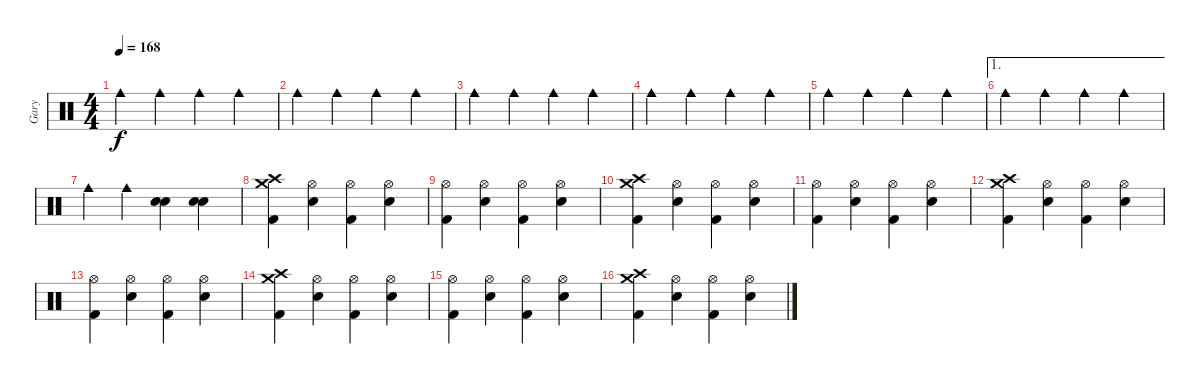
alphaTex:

\track ("Gary" "Gary") {instrument percussion}
\staff {score}
\articulation defaults
\ts (4 4)
\tempo 168
\clef neutral
\ks c "Cowbell medium (hit)".4{dy f} "Cowbell medium (hit)".4 "Cowbell medium (hit)".4 "Cowbell medium (hit)".4
|
"Cowbell medium (hit)".4 "Cowbell medium (hit)".4 "Cowbell medium (hit)".4 "Cowbell medium (hit)".4 |
"Cowbell medium (hit)".4 "Cowbell medium (hit)".4 "Cowbell medium (hit)".4 "Cowbell medium (hit)".4 |
"Cowbell medium (hit)".4 "Cowbell medium (hit)".4 "Cowbell medium (hit)".4 "Cowbell medium (hit)".4 |
"Cowbell medium (hit)".4 "Cowbell medium (hit)".4 "Cowbell medium (hit)".4 "Cowbell medium (hit)".4 |
\ae 1 "Cowbell medium (hit)".4 "Cowbell medium (hit)".4 "Cowbell medium (hit)".4 "Cowbell medium (hit)".4
|
"Cowbell medium (hit)".4 "Cowbell medium (hit)".4 ("Electric Snare (hit)" "Electric Snare (hit)").4 ("Electric Snare (hit)" "Electric Snare (hit)").4 |
("Crash medium (hit)" "Crash high (hit)" "Kick (hit) 2").4 ("Hi-Hat (open)" "Electric Snare (hit)").4 ("Hi-Hat (open)" "Kick (hit) 2").4 ("Hi-Hat (open)" "Electric Snare (hit)").4 |
("Hi-Hat (open)" "Kick (hit) 2").4 ("Hi-Hat (open)" "Electric Snare (hit)").4 ("Hi-Hat (open)" "Kick (hit) 2").4 ("Hi-Hat (open)" "Electric Snare (hit)").4 |
("Crash medium (hit)" "Crash high (hit)" "Kick (hit) 2").4 ("Hi-Hat (open)" "Electric Snare (hit)").4 ("Hi-Hat (open)" "Kick (hit) 2").4 ("Hi-Hat (open)" "Electric Snare (hit)").4 |
("Hi-Hat (open)" "Kick (hit) 2").4 ("Hi-Hat (open)" "Electric Snare (hit)").4 ("Hi-Hat (open)" "Kick (hit) 2").4 ("Hi-Hat (open)" "Electric Snare (hit)").4 |
("Crash medium (hit)" "Crash high (hit)" "Kick (hit) 2").4 ("Hi-Hat (open)" "Electric Snare (hit)").4 ("Hi-Hat (open)" "Kick (hit) 2").4 ("Hi-Hat (open)" "Electric Snare (hit)").4 |
("Hi-Hat (open)" "Kick (hit) 2").4 ("Hi-Hat (open)" "Electric Snare (hit)").4 ("Hi-Hat (open)" "Kick (hit) 2").4 ("Hi-Hat (open)" "Electric Snare (hit)").4 |
("Crash medium (hit)" "Crash high (hit)" "Kick (hit) 2").4 ("Hi-Hat (open)" "Electric Snare (hit)").4 ("Hi-Hat (open)" "Kick (hit) 2").4 ("Hi-Hat (open)" "Electric Snare (hit)").4 |
("Hi-Hat (open)" "Kick (hit) 2").4 ("Hi-Hat (open)" "Electric Snare (hit)").4 ("Hi-Hat (open)" "Kick (hit) 2").4 ("Hi-Hat (open)" "Electric Snare (hit)").4 |
("Crash medium (hit)" "Crash high (hit)" "Kick (hit) 2").4 ("Hi-Hat (open)" "Electric Snare (hit)").4 ("Hi-Hat (open)" "Kick (hit) 2").4 ("Hi-Hat (open)" "Electric Snare (hit)").4
